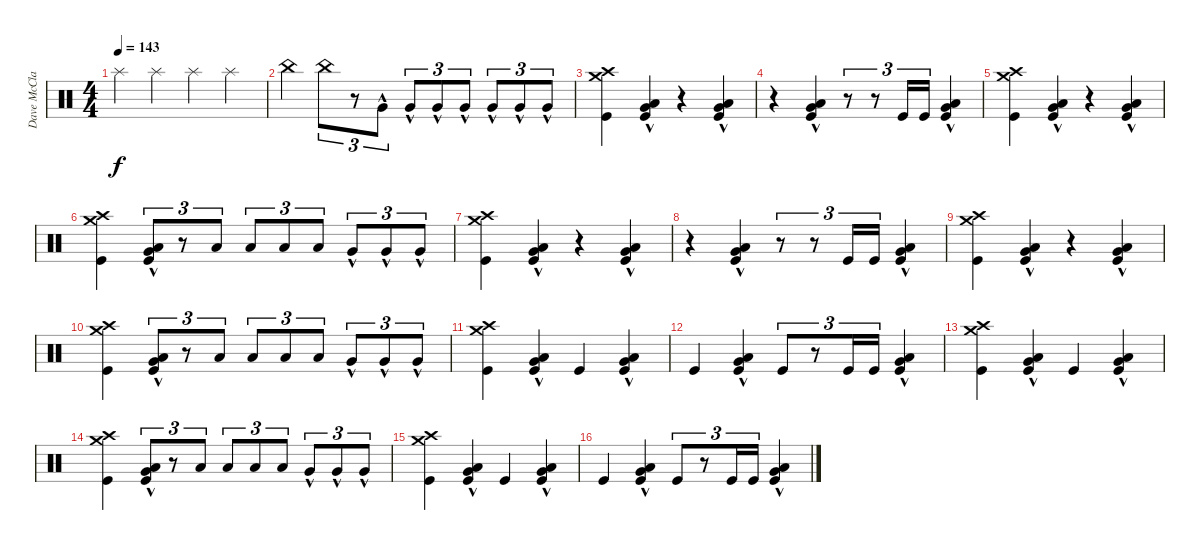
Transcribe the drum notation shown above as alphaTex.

\track ("Dave McClaine" "Dave McCla") {instrument percussion}
\staff {score}
\articulation defaults
\ts (4 4)
\tempo 143
\clef neutral
\ks c "Splash (hit)".4{dy f} "Splash (hit)".4 "Splash (hit)".4 "Splash (hit)".4
|
"China (hit)".4 "China (hit)".8{tu (3 2)} r.8{tu (3 2)} "Very Low Tom (hit)"{hac}.8{tu (3 2)} "Very Low Tom (hit)"{hac}.8{tu (3 2)} "Very Low Tom (hit)"{hac}.8{tu (3 2)} "Very Low Tom (hit)"{hac}.8{tu (3 2)} "Very Low Tom (hit)"{hac}.8{tu (3 2)} "Very Low Tom (hit)"{hac}.8{tu (3 2)} "Very Low Tom (hit)"{hac}.8{tu (3 2)} |
("Kick (hit)" "Crash high (hit)" "Crash medium (hit)").4 ("Very Low Tom (hit)"{hac} "Low Floor Tom (hit)"{hac} "Kick (hit)").4 r.4 ("Low Floor Tom (hit)"{hac} "Very Low Tom (hit)"{hac} "Kick (hit)").4 |
r.4 ("Very Low Tom (hit)"{hac} "Low Floor Tom (hit)"{hac} "Kick (hit)").4 r.8{tu (3 2)} r.8{tu (3 2)} "Kick (hit)".16{tu (3 2)} "Kick (hit)".16{tu (3 2)} ("Low Floor Tom (hit)"{hac} "Very Low Tom (hit)"{hac} "Kick (hit)").4 |
("Kick (hit)" "Crash high (hit)" "Crash medium (hit)").4 ("Very Low Tom (hit)"{hac} "Low Floor Tom (hit)"{hac} "Kick (hit)").4 r.4 ("Low Floor Tom (hit)"{hac} "Very Low Tom (hit)"{hac} "Kick (hit)").4 |
("Kick (hit)" "Crash high (hit)" "Crash medium (hit)").4 ("Very Low Tom (hit)"{hac} "Low Floor Tom (hit)"{hac} "Kick (hit)").8{tu (3 2)} r.8{tu (3 2)} "Low Tom (hit)".8{tu (3 2)} "Low Tom (hit)".8{tu (3 2)} "Low Tom (hit)".8{tu (3 2)} "Low Tom (hit)".8{tu (3 2)} "Very Low Tom (hit)"{hac}.8{tu (3 2)} "Very Low Tom (hit)"{hac}.8{tu (3 2)} "Very Low Tom (hit)"{hac}.8{tu (3 2)} |
("Kick (hit)" "Crash high (hit)" "Crash medium (hit)").4 ("Very Low Tom (hit)"{hac} "Low Floor Tom (hit)"{hac} "Kick (hit)").4 r.4 ("Low Floor Tom (hit)"{hac} "Very Low Tom (hit)"{hac} "Kick (hit)").4 |
r.4 ("Very Low Tom (hit)"{hac} "Low Floor Tom (hit)"{hac} "Kick (hit)").4 r.8{tu (3 2)} r.8{tu (3 2)} "Kick (hit)".16{tu (3 2)} "Kick (hit)".16{tu (3 2)} ("Low Floor Tom (hit)"{hac} "Very Low Tom (hit)"{hac} "Kick (hit)").4 |
("Kick (hit)" "Crash high (hit)" "Crash medium (hit)").4 ("Very Low Tom (hit)"{hac} "Low Floor Tom (hit)"{hac} "Kick (hit)").4 r.4 ("Low Floor Tom (hit)"{hac} "Very Low Tom (hit)"{hac} "Kick (hit)").4 |
("Kick (hit)" "Crash high (hit)" "Crash medium (hit)").4 ("Very Low Tom (hit)"{hac} "Low Floor Tom (hit)"{hac} "Kick (hit)").8{tu (3 2)} r.8{tu (3 2)} "Low Tom (hit)".8{tu (3 2)} "Low Tom (hit)".8{tu (3 2)} "Low Tom (hit)".8{tu (3 2)} "Low Tom (hit)".8{tu (3 2)} "Very Low Tom (hit)"{hac}.8{tu (3 2)} "Very Low Tom (hit)"{hac}.8{tu (3 2)} "Very Low Tom (hit)"{hac}.8{tu (3 2)} |
("Kick (hit)" "Crash high (hit)" "Crash medium (hit)").4 ("Very Low Tom (hit)"{hac} "Low Floor Tom (hit)"{hac} "Kick (hit)").4 "Kick (hit)".4 ("Low Floor Tom (hit)"{hac} "Very Low Tom (hit)"{hac} "Kick (hit)").4 |
"Kick (hit)".4 ("Very Low Tom (hit)"{hac} "Low Floor Tom (hit)"{hac} "Kick (hit)").4 "Kick (hit)".8{tu (3 2)} r.8{tu (3 2)} "Kick (hit)".16{tu (3 2)} "Kick (hit)".16{tu (3 2)} ("Low Floor Tom (hit)"{hac} "Very Low Tom (hit)"{hac} "Kick (hit)").4 |
("Kick (hit)" "Crash high (hit)" "Crash medium (hit)").4 ("Very Low Tom (hit)"{hac} "Low Floor Tom (hit)"{hac} "Kick (hit)").4 "Kick (hit)".4 ("Low Floor Tom (hit)"{hac} "Very Low Tom (hit)"{hac} "Kick (hit)").4 |
("Kick (hit)" "Crash high (hit)" "Crash medium (hit)").4 ("Very Low Tom (hit)"{hac} "Low Floor Tom (hit)"{hac} "Kick (hit)").8{tu (3 2)} r.8{tu (3 2)} "Low Tom (hit)".8{tu (3 2)} "Low Tom (hit)".8{tu (3 2)} "Low Tom (hit)".8{tu (3 2)} "Low Tom (hit)".8{tu (3 2)} "Very Low Tom (hit)"{hac}.8{tu (3 2)} "Very Low Tom (hit)"{hac}.8{tu (3 2)} "Very Low Tom (hit)"{hac}.8{tu (3 2)} |
("Kick (hit)" "Crash high (hit)" "Crash medium (hit)").4 ("Very Low Tom (hit)"{hac} "Low Floor Tom (hit)"{hac} "Kick (hit)").4 "Kick (hit)".4 ("Low Floor Tom (hit)"{hac} "Very Low Tom (hit)"{hac} "Kick (hit)").4 |
"Kick (hit)".4 ("Very Low Tom (hit)"{hac} "Low Floor Tom (hit)"{hac} "Kick (hit)").4 "Kick (hit)".8{tu (3 2)} r.8{tu (3 2)} "Kick (hit)".16{tu (3 2)} "Kick (hit)".16{tu (3 2)} ("Low Floor Tom (hit)"{hac} "Very Low Tom (hit)"{hac} "Kick (hit)").4
